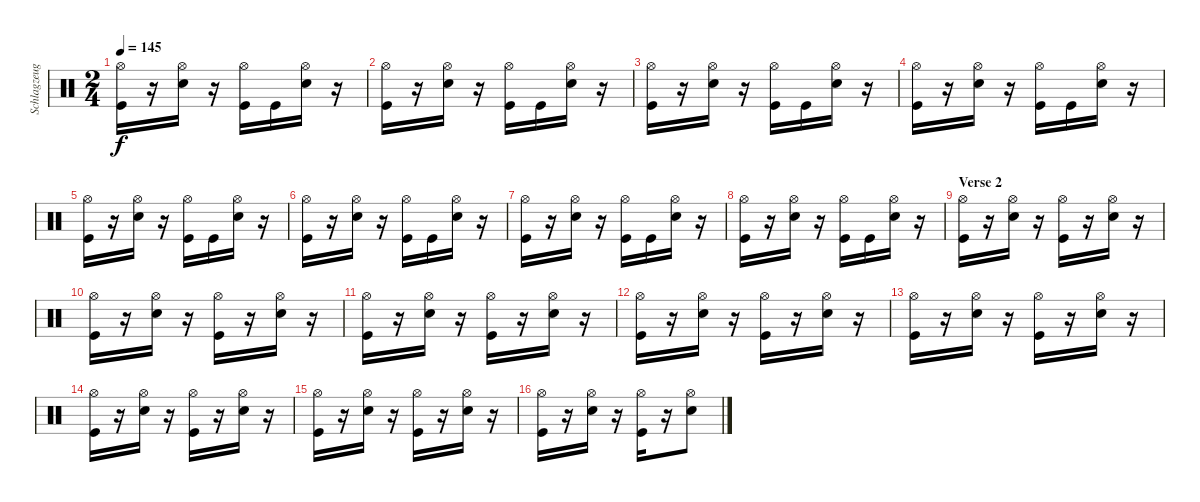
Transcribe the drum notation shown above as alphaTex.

\track ("Schlagzeug - Bela B." "Schlagzeug") {instrument percussion}
\staff {score}
\articulation defaults
\ts (2 4)
\tempo 145
\clef neutral
\ks c
("Kick (hit)" "Hi-Hat (open)").16{dy f} r.16 ("Electric Snare (hit)" "Hi-Hat (open)").16 r.16 ("Kick (hit)" "Hi-Hat (open)").16 "Kick (hit)".16 ("Electric Snare (hit)" "Hi-Hat (open)").16 r.16 |
("Kick (hit)" "Hi-Hat (open)").16 r.16 ("Electric Snare (hit)" "Hi-Hat (open)").16 r.16 ("Kick (hit)" "Hi-Hat (open)").16 "Kick (hit)".16 ("Electric Snare (hit)" "Hi-Hat (open)").16 r.16 |
("Kick (hit)" "Hi-Hat (open)").16 r.16 ("Electric Snare (hit)" "Hi-Hat (open)").16 r.16 ("Kick (hit)" "Hi-Hat (open)").16 "Kick (hit)".16 ("Electric Snare (hit)" "Hi-Hat (open)").16 r.16 |
("Kick (hit)" "Hi-Hat (open)").16 r.16 ("Electric Snare (hit)" "Hi-Hat (open)").16 r.16 ("Kick (hit)" "Hi-Hat (open)").16 "Kick (hit)".16 ("Electric Snare (hit)" "Hi-Hat (open)").16 r.16 |
("Kick (hit)" "Hi-Hat (open)").16 r.16 ("Electric Snare (hit)" "Hi-Hat (open)").16 r.16 ("Kick (hit)" "Hi-Hat (open)").16 "Kick (hit)".16 ("Electric Snare (hit)" "Hi-Hat (open)").16 r.16 |
("Kick (hit)" "Hi-Hat (open)").16 r.16 ("Electric Snare (hit)" "Hi-Hat (open)").16 r.16 ("Kick (hit)" "Hi-Hat (open)").16 "Kick (hit)".16 ("Electric Snare (hit)" "Hi-Hat (open)").16 r.16 |
("Kick (hit)" "Hi-Hat (open)").16 r.16 ("Electric Snare (hit)" "Hi-Hat (open)").16 r.16 ("Kick (hit)" "Hi-Hat (open)").16 "Kick (hit)".16 ("Electric Snare (hit)" "Hi-Hat (open)").16 r.16 |
("Kick (hit)" "Hi-Hat (open)").16 r.16 ("Electric Snare (hit)" "Hi-Hat (open)").16 r.16 ("Kick (hit)" "Hi-Hat (open)").16 "Kick (hit)".16 ("Electric Snare (hit)" "Hi-Hat (open)").16 r.16 |
\section ("" "Verse 2")
("Kick (hit)" "Hi-Hat (open)").16 r.16 ("Electric Snare (hit)" "Hi-Hat (open)").16 r.16 ("Kick (hit)" "Hi-Hat (open)").16 r.16 ("Electric Snare (hit)" "Hi-Hat (open)").16 r.16 |
("Kick (hit)" "Hi-Hat (open)").16 r.16 ("Electric Snare (hit)" "Hi-Hat (open)").16 r.16 ("Kick (hit)" "Hi-Hat (open)").16 r.16 ("Electric Snare (hit)" "Hi-Hat (open)").16 r.16 |
("Kick (hit)" "Hi-Hat (open)").16 r.16 ("Electric Snare (hit)" "Hi-Hat (open)").16 r.16 ("Kick (hit)" "Hi-Hat (open)").16 r.16 ("Electric Snare (hit)" "Hi-Hat (open)").16 r.16 |
("Kick (hit)" "Hi-Hat (open)").16 r.16 ("Electric Snare (hit)" "Hi-Hat (open)").16 r.16 ("Kick (hit)" "Hi-Hat (open)").16 r.16 ("Electric Snare (hit)" "Hi-Hat (open)").16 r.16 |
("Kick (hit)" "Hi-Hat (open)").16 r.16 ("Electric Snare (hit)" "Hi-Hat (open)").16 r.16 ("Kick (hit)" "Hi-Hat (open)").16 r.16 ("Electric Snare (hit)" "Hi-Hat (open)").16 r.16 |
("Kick (hit)" "Hi-Hat (open)").16 r.16 ("Electric Snare (hit)" "Hi-Hat (open)").16 r.16 ("Kick (hit)" "Hi-Hat (open)").16 r.16 ("Electric Snare (hit)" "Hi-Hat (open)").16 r.16 |
("Kick (hit)" "Hi-Hat (open)").16 r.16 ("Electric Snare (hit)" "Hi-Hat (open)").16 r.16 ("Kick (hit)" "Hi-Hat (open)").16 r.16 ("Electric Snare (hit)" "Hi-Hat (open)").16 r.16 |
("Kick (hit)" "Hi-Hat (open)").16 r.16 ("Electric Snare (hit)" "Hi-Hat (open)").16 r.16 ("Kick (hit)" "Hi-Hat (open)").16 r.16 ("Hi-Hat (open)" "Electric Snare (hit)").8
